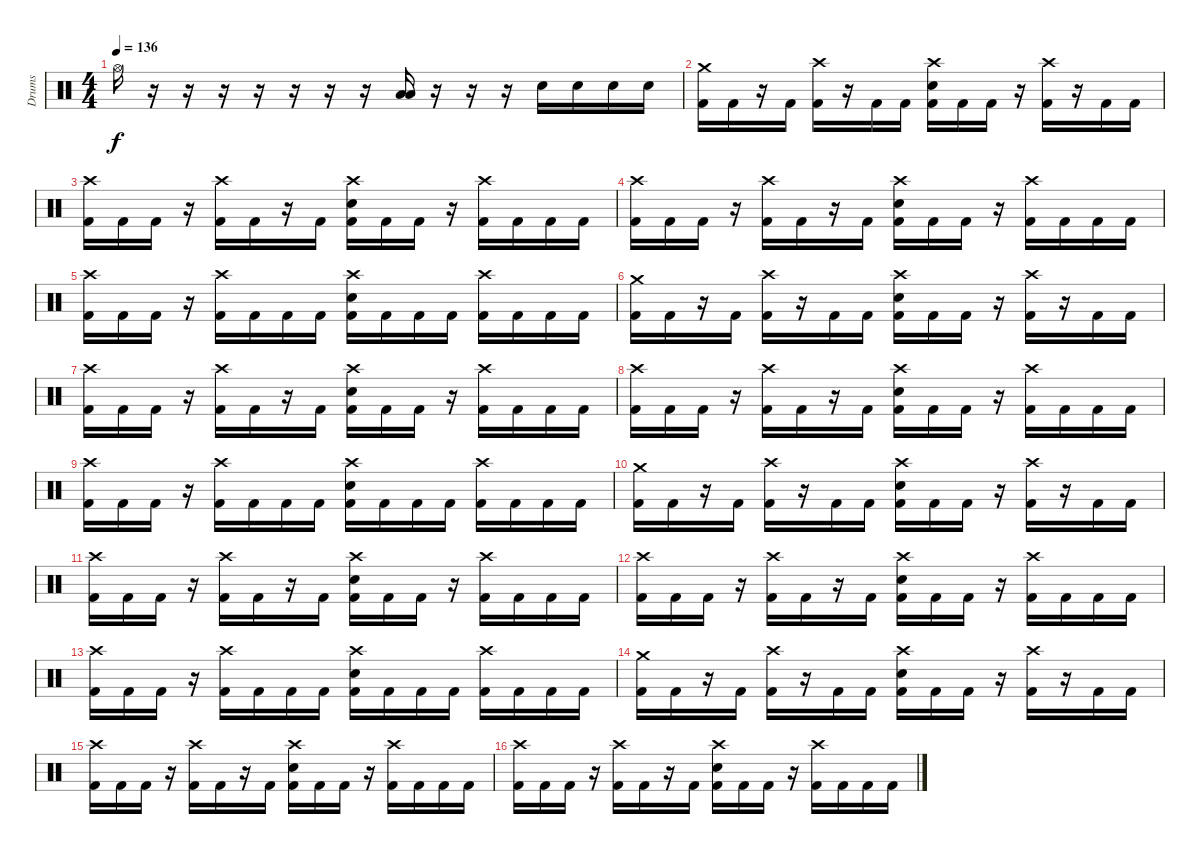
\track ("Drums" "Drums") {instrument percussion}
\staff {score}
\articulation defaults
\ts (4 4)
\tempo 136
\clef neutral
\ks c "Hi-Hat (open)".16{dy f}
r.16 r.16 r.16 r.16 r.16 r.16 r.16 ("Low Tom (hit)" "Low Tom (hit)").16 r.16 r.16 r.16 "Snare (hit) 2".16 "Snare (hit) 2".16 "Snare (hit) 2".16 "Snare (hit) 2".16 |
("Crash medium (hit)" "Kick (hit) 2").16 "Kick (hit) 2".16 r.16 "Kick (hit) 2".16 ("Crash high (hit)" "Kick (hit) 2").16 r.16 "Kick (hit) 2".16 "Kick (hit) 2".16 ("Crash high (hit)" "Snare (hit) 2" "Kick (hit) 2").16 "Kick (hit) 2".16 "Kick (hit) 2".16 r.16 ("Crash high (hit)" "Kick (hit) 2").16 r.16 "Kick (hit) 2".16 "Kick (hit) 2".16 |
("Crash high (hit)" "Kick (hit) 2").16 "Kick (hit) 2".16 "Kick (hit) 2".16 r.16 ("Crash high (hit)" "Kick (hit) 2").16 "Kick (hit) 2".16 r.16 "Kick (hit) 2".16 ("Crash high (hit)" "Snare (hit) 2" "Kick (hit) 2").16 "Kick (hit) 2".16 "Kick (hit) 2".16 r.16 ("Crash high (hit)" "Kick (hit) 2").16 "Kick (hit) 2".16 "Kick (hit) 2".16 "Kick (hit) 2".16 |
("Crash high (hit)" "Kick (hit) 2").16 "Kick (hit) 2".16 "Kick (hit) 2".16 r.16 ("Crash high (hit)" "Kick (hit) 2").16 "Kick (hit) 2".16 r.16 "Kick (hit) 2".16 ("Crash high (hit)" "Snare (hit) 2" "Kick (hit) 2").16 "Kick (hit) 2".16 "Kick (hit) 2".16 r.16 ("Crash high (hit)" "Kick (hit) 2").16 "Kick (hit) 2".16 "Kick (hit) 2".16 "Kick (hit) 2".16 |
("Crash high (hit)" "Kick (hit) 2").16 "Kick (hit) 2".16 "Kick (hit) 2".16 r.16 ("Crash high (hit)" "Kick (hit) 2").16 "Kick (hit) 2".16 "Kick (hit) 2".16 "Kick (hit) 2".16 ("Crash high (hit)" "Snare (hit) 2" "Kick (hit) 2").16 "Kick (hit) 2".16 "Kick (hit) 2".16 "Kick (hit) 2".16 ("Crash high (hit)" "Kick (hit) 2").16 "Kick (hit) 2".16 "Kick (hit) 2".16 "Kick (hit) 2".16 |
("Crash medium (hit)" "Kick (hit) 2").16 "Kick (hit) 2".16 r.16 "Kick (hit) 2".16 ("Crash high (hit)" "Kick (hit) 2").16 r.16 "Kick (hit) 2".16 "Kick (hit) 2".16 ("Crash high (hit)" "Snare (hit) 2" "Kick (hit) 2").16 "Kick (hit) 2".16 "Kick (hit) 2".16 r.16 ("Crash high (hit)" "Kick (hit) 2").16 r.16 "Kick (hit) 2".16 "Kick (hit) 2".16 |
("Crash high (hit)" "Kick (hit) 2").16 "Kick (hit) 2".16 "Kick (hit) 2".16 r.16 ("Crash high (hit)" "Kick (hit) 2").16 "Kick (hit) 2".16 r.16 "Kick (hit) 2".16 ("Crash high (hit)" "Snare (hit) 2" "Kick (hit) 2").16 "Kick (hit) 2".16 "Kick (hit) 2".16 r.16 ("Crash high (hit)" "Kick (hit) 2").16 "Kick (hit) 2".16 "Kick (hit) 2".16 "Kick (hit) 2".16 |
("Crash high (hit)" "Kick (hit) 2").16 "Kick (hit) 2".16 "Kick (hit) 2".16 r.16 ("Crash high (hit)" "Kick (hit) 2").16 "Kick (hit) 2".16 r.16 "Kick (hit) 2".16 ("Crash high (hit)" "Snare (hit) 2" "Kick (hit) 2").16 "Kick (hit) 2".16 "Kick (hit) 2".16 r.16 ("Crash high (hit)" "Kick (hit) 2").16 "Kick (hit) 2".16 "Kick (hit) 2".16 "Kick (hit) 2".16 |
("Crash high (hit)" "Kick (hit) 2").16 "Kick (hit) 2".16 "Kick (hit) 2".16 r.16 ("Crash high (hit)" "Kick (hit) 2").16 "Kick (hit) 2".16 "Kick (hit) 2".16 "Kick (hit) 2".16 ("Crash high (hit)" "Snare (hit) 2" "Kick (hit) 2").16 "Kick (hit) 2".16 "Kick (hit) 2".16 "Kick (hit) 2".16 ("Crash high (hit)" "Kick (hit) 2").16 "Kick (hit) 2".16 "Kick (hit) 2".16 "Kick (hit) 2".16 |
("Crash medium (hit)" "Kick (hit) 2").16 "Kick (hit) 2".16 r.16 "Kick (hit) 2".16 ("Crash high (hit)" "Kick (hit) 2").16 r.16 "Kick (hit) 2".16 "Kick (hit) 2".16 ("Crash high (hit)" "Snare (hit) 2" "Kick (hit) 2").16 "Kick (hit) 2".16 "Kick (hit) 2".16 r.16 ("Crash high (hit)" "Kick (hit) 2").16 r.16 "Kick (hit) 2".16 "Kick (hit) 2".16 |
("Crash high (hit)" "Kick (hit) 2").16 "Kick (hit) 2".16 "Kick (hit) 2".16 r.16 ("Crash high (hit)" "Kick (hit) 2").16 "Kick (hit) 2".16 r.16 "Kick (hit) 2".16 ("Crash high (hit)" "Snare (hit) 2" "Kick (hit) 2").16 "Kick (hit) 2".16 "Kick (hit) 2".16 r.16 ("Crash high (hit)" "Kick (hit) 2").16 "Kick (hit) 2".16 "Kick (hit) 2".16 "Kick (hit) 2".16 |
("Crash high (hit)" "Kick (hit) 2").16 "Kick (hit) 2".16 "Kick (hit) 2".16 r.16 ("Crash high (hit)" "Kick (hit) 2").16 "Kick (hit) 2".16 r.16 "Kick (hit) 2".16 ("Crash high (hit)" "Snare (hit) 2" "Kick (hit) 2").16 "Kick (hit) 2".16 "Kick (hit) 2".16 r.16 ("Crash high (hit)" "Kick (hit) 2").16 "Kick (hit) 2".16 "Kick (hit) 2".16 "Kick (hit) 2".16 |
("Crash high (hit)" "Kick (hit) 2").16 "Kick (hit) 2".16 "Kick (hit) 2".16 r.16 ("Crash high (hit)" "Kick (hit) 2").16 "Kick (hit) 2".16 "Kick (hit) 2".16 "Kick (hit) 2".16 ("Crash high (hit)" "Snare (hit) 2" "Kick (hit) 2").16 "Kick (hit) 2".16 "Kick (hit) 2".16 "Kick (hit) 2".16 ("Crash high (hit)" "Kick (hit) 2").16 "Kick (hit) 2".16 "Kick (hit) 2".16 "Kick (hit) 2".16 |
("Crash medium (hit)" "Kick (hit) 2").16 "Kick (hit) 2".16 r.16 "Kick (hit) 2".16 ("Crash high (hit)" "Kick (hit) 2").16 r.16 "Kick (hit) 2".16 "Kick (hit) 2".16 ("Crash high (hit)" "Snare (hit) 2" "Kick (hit) 2").16 "Kick (hit) 2".16 "Kick (hit) 2".16 r.16 ("Crash high (hit)" "Kick (hit) 2").16 r.16 "Kick (hit) 2".16 "Kick (hit) 2".16 |
("Crash high (hit)" "Kick (hit) 2").16 "Kick (hit) 2".16 "Kick (hit) 2".16 r.16 ("Crash high (hit)" "Kick (hit) 2").16 "Kick (hit) 2".16 r.16 "Kick (hit) 2".16 ("Crash high (hit)" "Snare (hit) 2" "Kick (hit) 2").16 "Kick (hit) 2".16 "Kick (hit) 2".16 r.16 ("Crash high (hit)" "Kick (hit) 2").16 "Kick (hit) 2".16 "Kick (hit) 2".16 "Kick (hit) 2".16 |
("Crash high (hit)" "Kick (hit) 2").16 "Kick (hit) 2".16 "Kick (hit) 2".16 r.16 ("Crash high (hit)" "Kick (hit) 2").16 "Kick (hit) 2".16 r.16 "Kick (hit) 2".16 ("Crash high (hit)" "Snare (hit) 2" "Kick (hit) 2").16 "Kick (hit) 2".16 "Kick (hit) 2".16 r.16 ("Crash high (hit)" "Kick (hit) 2").16 "Kick (hit) 2".16 "Kick (hit) 2".16 "Kick (hit) 2".16
